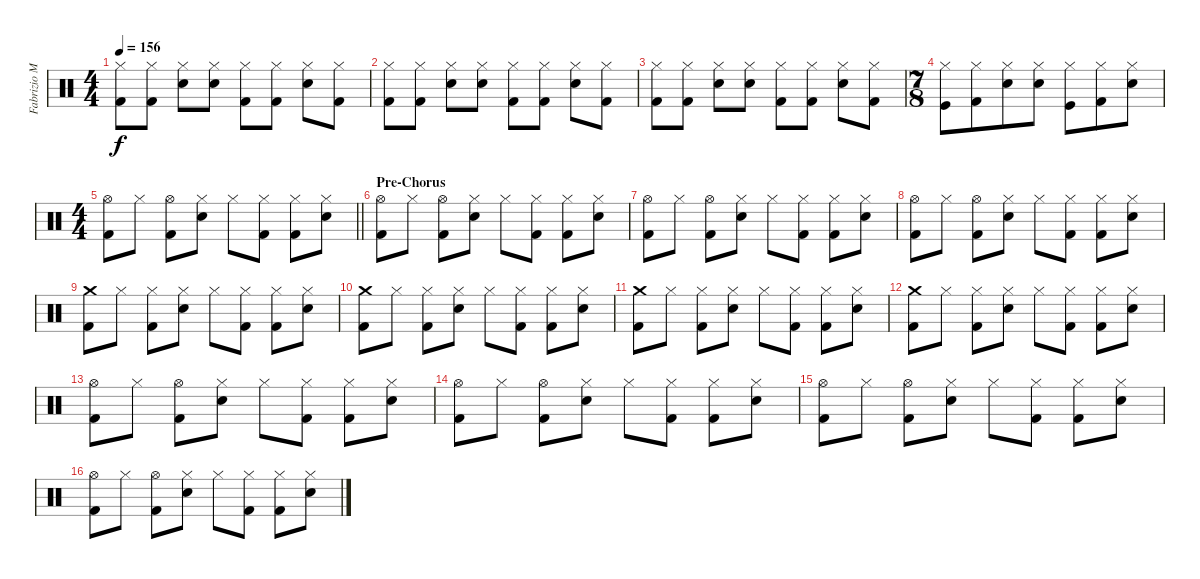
\track ("Fabrizio Moretti (Drums)" "Fabrizio M") {instrument percussion}
\staff {score}
\articulation defaults
\ts (4 4)
\tempo 156
\clef neutral
\ks c
("Hi-Hat (closed)" "Kick (hit) 2").8{dy f} ("Hi-Hat (closed)" "Kick (hit) 2").8 ("Hi-Hat (closed)" "Snare (hit) 2").8 ("Hi-Hat (closed)" "Snare (hit) 2").8 ("Hi-Hat (closed)" "Kick (hit) 2").8 ("Hi-Hat (closed)" "Kick (hit) 2").8 ("Hi-Hat (closed)" "Snare (hit) 2").8 ("Hi-Hat (closed)" "Kick (hit) 2").8 |
("Hi-Hat (closed)" "Kick (hit) 2").8 ("Hi-Hat (closed)" "Kick (hit) 2").8 ("Hi-Hat (closed)" "Snare (hit) 2").8 ("Hi-Hat (closed)" "Snare (hit) 2").8 ("Hi-Hat (closed)" "Kick (hit) 2").8 ("Hi-Hat (closed)" "Kick (hit) 2").8 ("Hi-Hat (closed)" "Snare (hit) 2").8 ("Hi-Hat (closed)" "Kick (hit) 2").8 |
("Hi-Hat (closed)" "Kick (hit) 2").8 ("Hi-Hat (closed)" "Kick (hit) 2").8 ("Hi-Hat (closed)" "Snare (hit) 2").8 ("Hi-Hat (closed)" "Snare (hit) 2").8 ("Hi-Hat (closed)" "Kick (hit) 2").8 ("Hi-Hat (closed)" "Kick (hit) 2").8 ("Hi-Hat (closed)" "Snare (hit) 2").8 ("Hi-Hat (closed)" "Kick (hit) 2").8 |
\ts (7 8)
("Hi-Hat (closed)" "Kick (hit)").8 ("Hi-Hat (closed)" "Kick (hit) 2").8 ("Hi-Hat (closed)" "Snare (hit) 2").8 ("Hi-Hat (closed)" "Snare (hit) 2").8 ("Hi-Hat (closed)" "Kick (hit)").8 ("Hi-Hat (closed)" "Kick (hit) 2").8 ("Hi-Hat (closed)" "Snare (hit) 2").8 |
\ts (4 4)
\barLineRight lightlight
("Hi-Hat (open)" "Kick (hit) 2").8 "Hi-Hat (closed)".8 ("Hi-Hat (open)" "Kick (hit) 2").8 ("Hi-Hat (closed)" "Snare (hit) 2").8 "Hi-Hat (closed)".8 ("Hi-Hat (closed)" "Kick (hit) 2").8 ("Hi-Hat (closed)" "Kick (hit) 2").8 ("Hi-Hat (closed)" "Snare (hit) 2").8 |
\section ("" "Pre-Chorus")
("Hi-Hat (open)" "Kick (hit) 2").8 "Hi-Hat (closed)".8 ("Hi-Hat (open)" "Kick (hit) 2").8 ("Hi-Hat (closed)" "Snare (hit) 2").8 "Hi-Hat (closed)".8 ("Hi-Hat (closed)" "Kick (hit) 2").8 ("Hi-Hat (closed)" "Kick (hit) 2").8 ("Hi-Hat (closed)" "Snare (hit) 2").8 |
("Hi-Hat (open)" "Kick (hit) 2").8 "Hi-Hat (closed)".8 ("Hi-Hat (open)" "Kick (hit) 2").8 ("Hi-Hat (closed)" "Snare (hit) 2").8 "Hi-Hat (closed)".8 ("Hi-Hat (closed)" "Kick (hit) 2").8 ("Hi-Hat (closed)" "Kick (hit) 2").8 ("Hi-Hat (closed)" "Snare (hit) 2").8 |
("Hi-Hat (open)" "Kick (hit) 2").8 "Hi-Hat (closed)".8 ("Hi-Hat (open)" "Kick (hit) 2").8 ("Hi-Hat (closed)" "Snare (hit) 2").8 "Hi-Hat (closed)".8 ("Hi-Hat (closed)" "Kick (hit) 2").8 ("Hi-Hat (closed)" "Kick (hit) 2").8 ("Hi-Hat (closed)" "Snare (hit) 2").8 |
("Crash medium (hit)" "Kick (hit) 2").8 "Hi-Hat (closed)".8 ("Hi-Hat (closed)" "Kick (hit) 2").8 ("Hi-Hat (closed)" "Snare (hit) 2").8 "Hi-Hat (closed)".8 ("Hi-Hat (closed)" "Kick (hit) 2").8 ("Hi-Hat (closed)" "Kick (hit) 2").8 ("Hi-Hat (closed)" "Snare (hit) 2").8 |
("Crash medium (hit)" "Kick (hit) 2").8 "Hi-Hat (closed)".8 ("Hi-Hat (closed)" "Kick (hit) 2").8 ("Hi-Hat (closed)" "Snare (hit) 2").8 "Hi-Hat (closed)".8 ("Hi-Hat (closed)" "Kick (hit) 2").8 ("Hi-Hat (closed)" "Kick (hit) 2").8 ("Hi-Hat (closed)" "Snare (hit) 2").8 |
("Crash medium (hit)" "Kick (hit) 2").8 "Hi-Hat (closed)".8 ("Hi-Hat (closed)" "Kick (hit) 2").8 ("Hi-Hat (closed)" "Snare (hit) 2").8 "Hi-Hat (closed)".8 ("Hi-Hat (closed)" "Kick (hit) 2").8 ("Hi-Hat (closed)" "Kick (hit) 2").8 ("Hi-Hat (closed)" "Snare (hit) 2").8 |
("Crash medium (hit)" "Kick (hit) 2").8 "Hi-Hat (closed)".8 ("Hi-Hat (closed)" "Kick (hit) 2").8 ("Hi-Hat (closed)" "Snare (hit) 2").8 "Hi-Hat (closed)".8 ("Hi-Hat (closed)" "Kick (hit) 2").8 ("Hi-Hat (closed)" "Kick (hit) 2").8 ("Hi-Hat (closed)" "Snare (hit) 2").8 |
("Hi-Hat (open)" "Kick (hit) 2").8 "Hi-Hat (closed)".8 ("Hi-Hat (open)" "Kick (hit) 2").8 ("Hi-Hat (closed)" "Snare (hit) 2").8 "Hi-Hat (closed)".8 ("Hi-Hat (closed)" "Kick (hit) 2").8 ("Hi-Hat (closed)" "Kick (hit) 2").8 ("Hi-Hat (closed)" "Snare (hit) 2").8 |
("Hi-Hat (open)" "Kick (hit) 2").8 "Hi-Hat (closed)".8 ("Hi-Hat (open)" "Kick (hit) 2").8 ("Hi-Hat (closed)" "Snare (hit) 2").8 "Hi-Hat (closed)".8 ("Hi-Hat (closed)" "Kick (hit) 2").8 ("Hi-Hat (closed)" "Kick (hit) 2").8 ("Hi-Hat (closed)" "Snare (hit) 2").8 |
("Hi-Hat (open)" "Kick (hit) 2").8 "Hi-Hat (closed)".8 ("Hi-Hat (open)" "Kick (hit) 2").8 ("Hi-Hat (closed)" "Snare (hit) 2").8 "Hi-Hat (closed)".8 ("Hi-Hat (closed)" "Kick (hit) 2").8 ("Hi-Hat (closed)" "Kick (hit) 2").8 ("Hi-Hat (closed)" "Snare (hit) 2").8 |
("Hi-Hat (open)" "Kick (hit) 2").8 "Hi-Hat (closed)".8 ("Hi-Hat (open)" "Kick (hit) 2").8 ("Hi-Hat (closed)" "Snare (hit) 2").8 "Hi-Hat (closed)".8 ("Hi-Hat (closed)" "Kick (hit) 2").8 ("Hi-Hat (closed)" "Kick (hit) 2").8 ("Hi-Hat (closed)" "Snare (hit) 2").8
